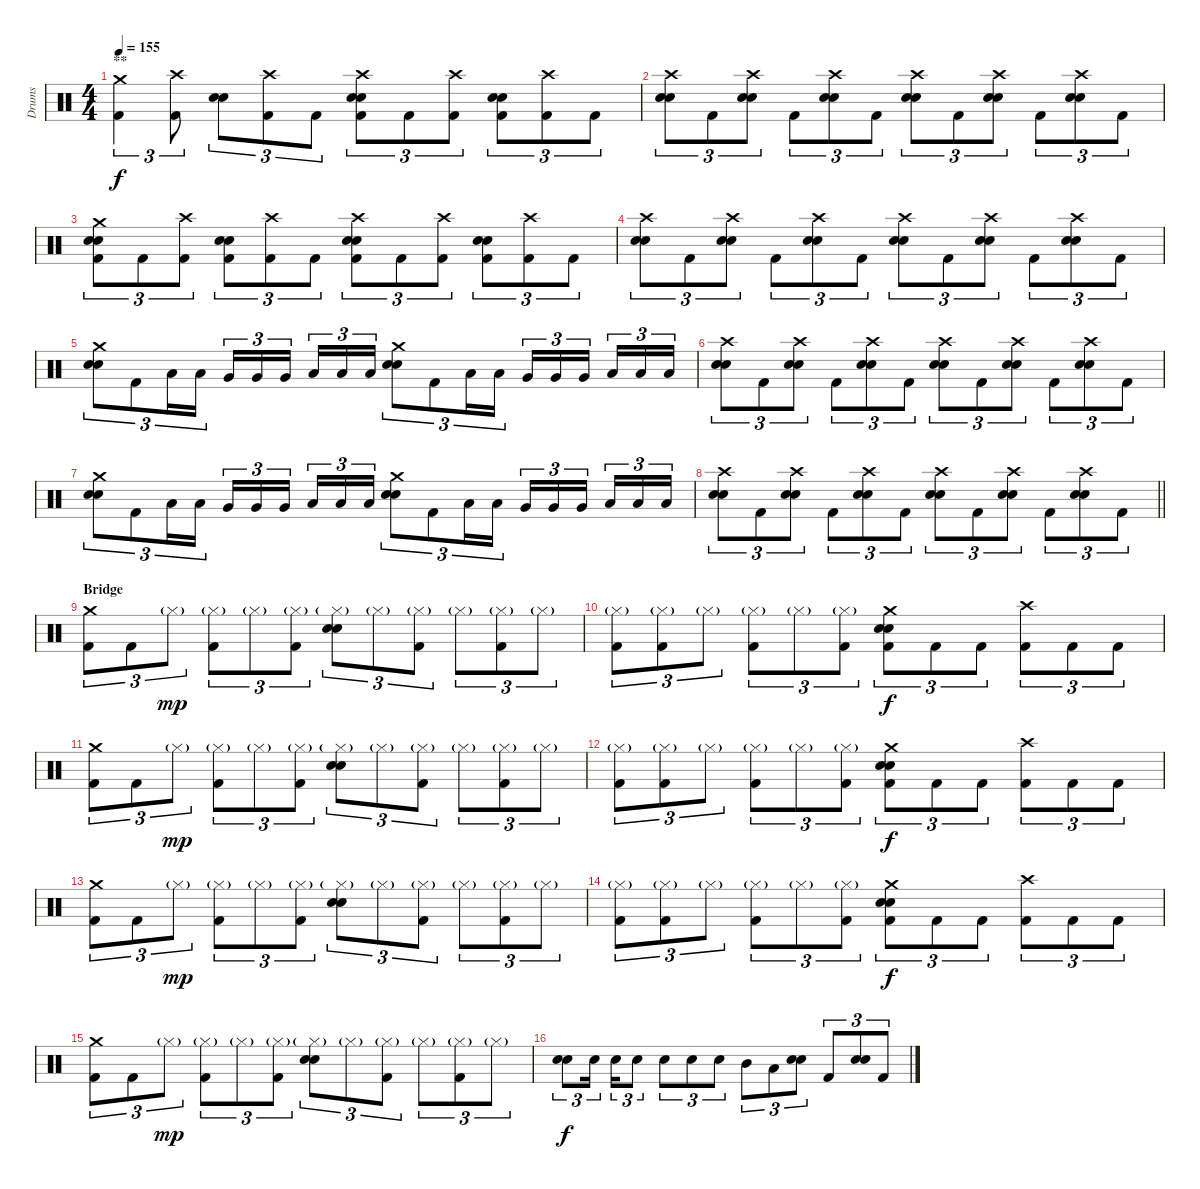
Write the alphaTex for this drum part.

\track ("Drums" "Drums") {instrument percussion}
\staff {score}
\articulation defaults
\ts (4 4)
\section ("" "**")
\tempo 155
\clef neutral
\ks c
("Crash medium (hit)" "Kick (hit) 2").4{tu (3 2) dy f} ("Crash high (hit)" "Kick (hit) 2").8{tu (3 2)} ("Electric Snare (hit)" "Electric Snare (hit)").8{tu (3 2)} ("Crash high (hit)" "Kick (hit) 2").8{tu (3 2)} "Kick (hit) 2".8{tu (3 2)} ("Crash high (hit)" "Electric Snare (hit)" "Electric Snare (hit)" "Kick (hit) 2").8{tu (3 2)} "Kick (hit) 2".8{tu (3 2)} ("Crash high (hit)" "Kick (hit) 2").8{tu (3 2)} ("Electric Snare (hit)" "Electric Snare (hit)" "Kick (hit) 2").8{tu (3 2)} ("Crash high (hit)" "Kick (hit) 2").8{tu (3 2)} "Kick (hit) 2".8{tu (3 2)} |
("Crash high (hit)" "Electric Snare (hit)" "Electric Snare (hit)").8{tu (3 2)} "Kick (hit) 2".8{tu (3 2)} ("Crash high (hit)" "Electric Snare (hit)" "Electric Snare (hit)").8{tu (3 2)} "Kick (hit) 2".8{tu (3 2)} ("Crash high (hit)" "Electric Snare (hit)" "Electric Snare (hit)").8{tu (3 2)} "Kick (hit) 2".8{tu (3 2)} ("Crash high (hit)" "Electric Snare (hit)" "Electric Snare (hit)").8{tu (3 2)} "Kick (hit) 2".8{tu (3 2)} ("Crash high (hit)" "Electric Snare (hit)" "Electric Snare (hit)").8{tu (3 2)} "Kick (hit) 2".8{tu (3 2)} ("Crash high (hit)" "Electric Snare (hit)" "Electric Snare (hit)").8{tu (3 2)} "Kick (hit) 2".8{tu (3 2)} |
("Crash medium (hit)" "Electric Snare (hit)" "Electric Snare (hit)" "Kick (hit) 2").8{tu (3 2)} "Kick (hit) 2".8{tu (3 2)} ("Crash high (hit)" "Kick (hit) 2").8{tu (3 2)} ("Electric Snare (hit)" "Electric Snare (hit)" "Kick (hit) 2").8{tu (3 2)} ("Crash high (hit)" "Kick (hit) 2").8{tu (3 2)} "Kick (hit) 2".8{tu (3 2)} ("Crash high (hit)" "Electric Snare (hit)" "Electric Snare (hit)" "Kick (hit) 2").8{tu (3 2)} "Kick (hit) 2".8{tu (3 2)} ("Crash high (hit)" "Kick (hit) 2").8{tu (3 2)} ("Electric Snare (hit)" "Electric Snare (hit)" "Kick (hit) 2").8{tu (3 2)} ("Crash high (hit)" "Kick (hit) 2").8{tu (3 2)} "Kick (hit) 2".8{tu (3 2)} |
("Crash high (hit)" "Electric Snare (hit)" "Electric Snare (hit)").8{tu (3 2)} "Kick (hit) 2".8{tu (3 2)} ("Crash high (hit)" "Electric Snare (hit)" "Electric Snare (hit)").8{tu (3 2)} "Kick (hit) 2".8{tu (3 2)} ("Crash high (hit)" "Electric Snare (hit)" "Electric Snare (hit)").8{tu (3 2)} "Kick (hit) 2".8{tu (3 2)} ("Crash high (hit)" "Electric Snare (hit)" "Electric Snare (hit)").8{tu (3 2)} "Kick (hit) 2".8{tu (3 2)} ("Crash high (hit)" "Electric Snare (hit)" "Electric Snare (hit)").8{tu (3 2)} "Kick (hit) 2".8{tu (3 2)} ("Crash high (hit)" "Electric Snare (hit)" "Electric Snare (hit)").8{tu (3 2)} "Kick (hit) 2".8{tu (3 2)} |
("Crash medium (hit)" "Electric Snare (hit)" "Electric Snare (hit)").8{tu (3 2)} "Kick (hit) 2".8{tu (3 2)} "Low Tom (hit)".16{tu (3 2)} "Low Tom (hit)".16{tu (3 2)} "Very Low Tom (hit)".16{tu (3 2)} "Very Low Tom (hit)".16{tu (3 2)} "Very Low Tom (hit)".16{tu (3 2) beam splitsecondary} "Low Floor Tom (hit)".16{tu (3 2)} "Low Floor Tom (hit)".16{tu (3 2)} "Low Floor Tom (hit)".16{tu (3 2)} ("Crash medium (hit)" "Electric Snare (hit)" "Electric Snare (hit)").8{tu (3 2)} "Kick (hit) 2".8{tu (3 2)} "Low Tom (hit)".16{tu (3 2)} "Low Tom (hit)".16{tu (3 2)} "Very Low Tom (hit)".16{tu (3 2)} "Very Low Tom (hit)".16{tu (3 2)} "Very Low Tom (hit)".16{tu (3 2) beam splitsecondary} "Low Floor Tom (hit)".16{tu (3 2)} "Low Floor Tom (hit)".16{tu (3 2)} "Low Floor Tom (hit)".16{tu (3 2)} |
("Crash high (hit)" "Electric Snare (hit)" "Electric Snare (hit)").8{tu (3 2)} "Kick (hit) 2".8{tu (3 2)} ("Crash high (hit)" "Electric Snare (hit)" "Electric Snare (hit)").8{tu (3 2)} "Kick (hit) 2".8{tu (3 2)} ("Crash high (hit)" "Electric Snare (hit)" "Electric Snare (hit)").8{tu (3 2)} "Kick (hit) 2".8{tu (3 2)} ("Crash high (hit)" "Electric Snare (hit)" "Electric Snare (hit)").8{tu (3 2)} "Kick (hit) 2".8{tu (3 2)} ("Crash high (hit)" "Electric Snare (hit)" "Electric Snare (hit)").8{tu (3 2)} "Kick (hit) 2".8{tu (3 2)} ("Crash high (hit)" "Electric Snare (hit)" "Electric Snare (hit)").8{tu (3 2)} "Kick (hit) 2".8{tu (3 2)} |
("Crash medium (hit)" "Electric Snare (hit)" "Electric Snare (hit)").8{tu (3 2)} "Kick (hit) 2".8{tu (3 2)} "Low Tom (hit)".16{tu (3 2)} "Low Tom (hit)".16{tu (3 2)} "Very Low Tom (hit)".16{tu (3 2)} "Very Low Tom (hit)".16{tu (3 2)} "Very Low Tom (hit)".16{tu (3 2) beam splitsecondary} "Low Floor Tom (hit)".16{tu (3 2)} "Low Floor Tom (hit)".16{tu (3 2)} "Low Floor Tom (hit)".16{tu (3 2)} ("Crash medium (hit)" "Electric Snare (hit)" "Electric Snare (hit)").8{tu (3 2)} "Kick (hit) 2".8{tu (3 2)} "Low Tom (hit)".16{tu (3 2)} "Low Tom (hit)".16{tu (3 2)} "Very Low Tom (hit)".16{tu (3 2)} "Very Low Tom (hit)".16{tu (3 2)} "Very Low Tom (hit)".16{tu (3 2) beam splitsecondary} "Low Floor Tom (hit)".16{tu (3 2)} "Low Floor Tom (hit)".16{tu (3 2)} "Low Floor Tom (hit)".16{tu (3 2)} |
\barLineRight lightlight
("Crash high (hit)" "Electric Snare (hit)" "Electric Snare (hit)").8{tu (3 2)} "Kick (hit) 2".8{tu (3 2)} ("Crash high (hit)" "Electric Snare (hit)" "Electric Snare (hit)").8{tu (3 2)} "Kick (hit) 2".8{tu (3 2)} ("Crash high (hit)" "Electric Snare (hit)" "Electric Snare (hit)").8{tu (3 2)} "Kick (hit) 2".8{tu (3 2)} ("Crash high (hit)" "Electric Snare (hit)" "Electric Snare (hit)").8{tu (3 2)} "Kick (hit) 2".8{tu (3 2)} ("Crash high (hit)" "Electric Snare (hit)" "Electric Snare (hit)").8{tu (3 2)} "Kick (hit) 2".8{tu (3 2)} ("Crash high (hit)" "Electric Snare (hit)" "Electric Snare (hit)").8{tu (3 2)} "Kick (hit) 2".8{tu (3 2)} |
\section ("" "Bridge")
("Crash medium (hit)" "Kick (hit) 2").8{tu (3 2)} "Kick (hit) 2".8{tu (3 2)} "Hi-Hat (closed)"{g}.8{tu (3 2) dy mp} ("Hi-Hat (closed)"{g} "Kick (hit) 2").8{tu (3 2)} "Hi-Hat (closed)"{g}.8{tu (3 2)} ("Hi-Hat (closed)"{g} "Kick (hit) 2").8{tu (3 2)} ("Hi-Hat (closed)"{g} "Electric Snare (hit)" "Electric Snare (hit)").8{tu (3 2)} "Hi-Hat (closed)"{g}.8{tu (3 2)} ("Hi-Hat (closed)"{g} "Kick (hit) 2").8{tu (3 2)} "Hi-Hat (closed)"{g}.8{tu (3 2)} ("Hi-Hat (closed)"{g} "Kick (hit) 2").8{tu (3 2)} "Hi-Hat (closed)"{g}.8{tu (3 2)} |
("Hi-Hat (closed)"{g} "Kick (hit) 2").8{tu (3 2)} ("Hi-Hat (closed)"{g} "Kick (hit) 2").8{tu (3 2)} "Hi-Hat (closed)"{g}.8{tu (3 2)} ("Hi-Hat (closed)"{g} "Kick (hit) 2").8{tu (3 2)} "Hi-Hat (closed)"{g}.8{tu (3 2)} ("Hi-Hat (closed)"{g} "Kick (hit) 2").8{tu (3 2)} ("Crash medium (hit)" "Electric Snare (hit)" "Electric Snare (hit)" "Kick (hit) 2").8{tu (3 2) dy f} "Kick (hit) 2".8{tu (3 2)} "Kick (hit) 2".8{tu (3 2)} ("Crash high (hit)" "Kick (hit) 2").8{tu (3 2)} "Kick (hit) 2".8{tu (3 2)} "Kick (hit) 2".8{tu (3 2)} |
("Crash medium (hit)" "Kick (hit) 2").8{tu (3 2)} "Kick (hit) 2".8{tu (3 2)} "Hi-Hat (closed)"{g}.8{tu (3 2) dy mp} ("Hi-Hat (closed)"{g} "Kick (hit) 2").8{tu (3 2)} "Hi-Hat (closed)"{g}.8{tu (3 2)} ("Hi-Hat (closed)"{g} "Kick (hit) 2").8{tu (3 2)} ("Hi-Hat (closed)"{g} "Electric Snare (hit)" "Electric Snare (hit)").8{tu (3 2)} "Hi-Hat (closed)"{g}.8{tu (3 2)} ("Hi-Hat (closed)"{g} "Kick (hit) 2").8{tu (3 2)} "Hi-Hat (closed)"{g}.8{tu (3 2)} ("Hi-Hat (closed)"{g} "Kick (hit) 2").8{tu (3 2)} "Hi-Hat (closed)"{g}.8{tu (3 2)} |
("Hi-Hat (closed)"{g} "Kick (hit) 2").8{tu (3 2)} ("Hi-Hat (closed)"{g} "Kick (hit) 2").8{tu (3 2)} "Hi-Hat (closed)"{g}.8{tu (3 2)} ("Hi-Hat (closed)"{g} "Kick (hit) 2").8{tu (3 2)} "Hi-Hat (closed)"{g}.8{tu (3 2)} ("Hi-Hat (closed)"{g} "Kick (hit) 2").8{tu (3 2)} ("Crash medium (hit)" "Electric Snare (hit)" "Electric Snare (hit)" "Kick (hit) 2").8{tu (3 2) dy f} "Kick (hit) 2".8{tu (3 2)} "Kick (hit) 2".8{tu (3 2)} ("Crash high (hit)" "Kick (hit) 2").8{tu (3 2)} "Kick (hit) 2".8{tu (3 2)} "Kick (hit) 2".8{tu (3 2)} |
("Crash medium (hit)" "Kick (hit) 2").8{tu (3 2)} "Kick (hit) 2".8{tu (3 2)} "Hi-Hat (closed)"{g}.8{tu (3 2) dy mp} ("Hi-Hat (closed)"{g} "Kick (hit) 2").8{tu (3 2)} "Hi-Hat (closed)"{g}.8{tu (3 2)} ("Hi-Hat (closed)"{g} "Kick (hit) 2").8{tu (3 2)} ("Hi-Hat (closed)"{g} "Electric Snare (hit)" "Electric Snare (hit)").8{tu (3 2)} "Hi-Hat (closed)"{g}.8{tu (3 2)} ("Hi-Hat (closed)"{g} "Kick (hit) 2").8{tu (3 2)} "Hi-Hat (closed)"{g}.8{tu (3 2)} ("Hi-Hat (closed)"{g} "Kick (hit) 2").8{tu (3 2)} "Hi-Hat (closed)"{g}.8{tu (3 2)} |
("Hi-Hat (closed)"{g} "Kick (hit) 2").8{tu (3 2)} ("Hi-Hat (closed)"{g} "Kick (hit) 2").8{tu (3 2)} "Hi-Hat (closed)"{g}.8{tu (3 2)} ("Hi-Hat (closed)"{g} "Kick (hit) 2").8{tu (3 2)} "Hi-Hat (closed)"{g}.8{tu (3 2)} ("Hi-Hat (closed)"{g} "Kick (hit) 2").8{tu (3 2)} ("Crash medium (hit)" "Electric Snare (hit)" "Electric Snare (hit)" "Kick (hit) 2").8{tu (3 2) dy f} "Kick (hit) 2".8{tu (3 2)} "Kick (hit) 2".8{tu (3 2)} ("Crash high (hit)" "Kick (hit) 2").8{tu (3 2)} "Kick (hit) 2".8{tu (3 2)} "Kick (hit) 2".8{tu (3 2)} |
("Crash medium (hit)" "Kick (hit) 2").8{tu (3 2)} "Kick (hit) 2".8{tu (3 2)} "Hi-Hat (closed)"{g}.8{tu (3 2) dy mp} ("Hi-Hat (closed)"{g} "Kick (hit) 2").8{tu (3 2)} "Hi-Hat (closed)"{g}.8{tu (3 2)} ("Hi-Hat (closed)"{g} "Kick (hit) 2").8{tu (3 2)} ("Hi-Hat (closed)"{g} "Electric Snare (hit)" "Electric Snare (hit)").8{tu (3 2)} "Hi-Hat (closed)"{g}.8{tu (3 2)} ("Hi-Hat (closed)"{g} "Kick (hit) 2").8{tu (3 2)} "Hi-Hat (closed)"{g}.8{tu (3 2)} ("Hi-Hat (closed)"{g} "Kick (hit) 2").8{tu (3 2)} "Hi-Hat (closed)"{g}.8{tu (3 2)} |
("Electric Snare (hit)" "Electric Snare (hit)").8{tu (3 2) dy f} "Electric Snare (hit)".16{tu (3 2) beam splitsecondary} "Electric Snare (hit)".16{tu (3 2)} "Electric Snare (hit)".8{tu (3 2)} "Electric Snare (hit)".8{tu (3 2)} "Electric Snare (hit)".8{tu (3 2)} "Electric Snare (hit)".8{tu (3 2)} "Mid Tom (hit)".8{tu (3 2)} "Low Tom (hit)".8{tu (3 2)} ("Electric Snare (hit)" "Electric Snare (hit)").8{tu (3 2)} "Kick (hit) 2".8{tu (3 2)} ("Electric Snare (hit)" "Electric Snare (hit)").8{tu (3 2)} "Kick (hit) 2".8{tu (3 2)}
